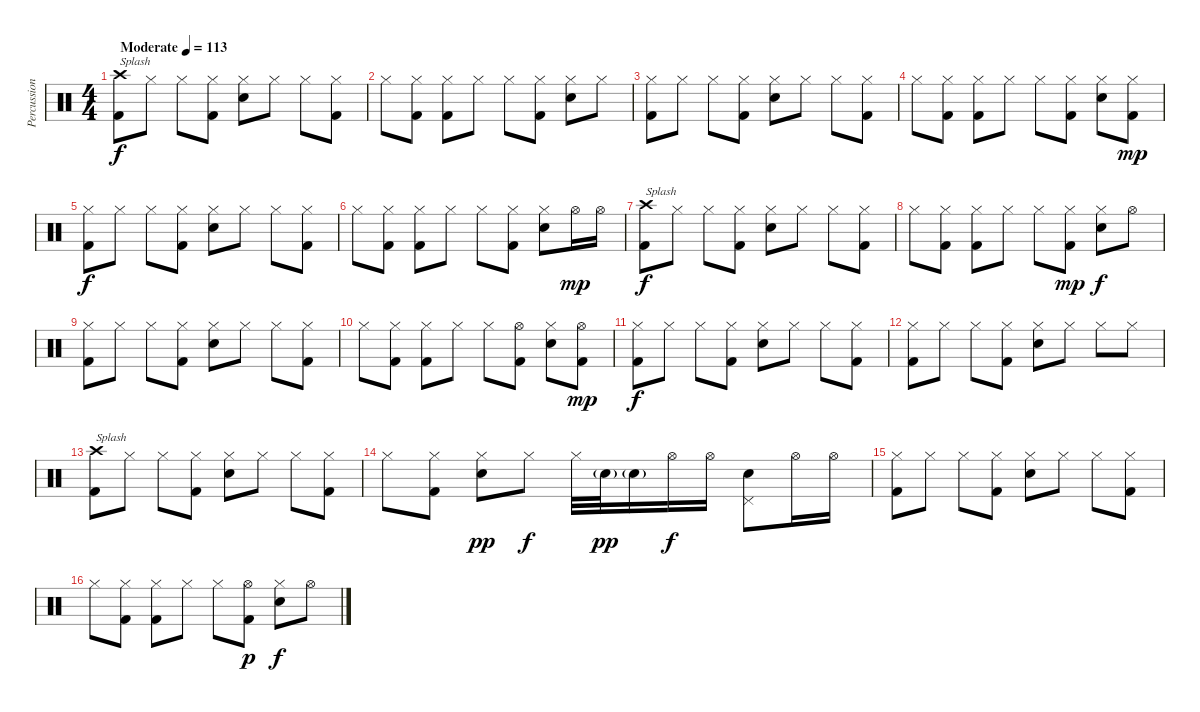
\track ("Percussion" "Percussion") {instrument percussion}
\staff {score}
\articulation defaults
\ts (4 4)
\tempo (113 "Moderate")
\clef neutral
\ks c
("Crash high (hit)" "Kick (hit) 2").8{txt "Splash" dy f} "Hi-Hat (closed)".8 "Hi-Hat (closed)".8 ("Hi-Hat (closed)" "Kick (hit) 2").8 ("Hi-Hat (closed)" "Snare (hit) 2").8 "Hi-Hat (closed)".8 "Hi-Hat (closed)".8 ("Hi-Hat (closed)" "Kick (hit) 2").8 |
"Hi-Hat (closed)".8 ("Hi-Hat (closed)" "Kick (hit) 2").8 ("Hi-Hat (closed)" "Kick (hit) 2").8 "Hi-Hat (closed)".8 "Hi-Hat (closed)".8 ("Hi-Hat (closed)" "Kick (hit) 2").8 ("Hi-Hat (closed)" "Snare (hit) 2").8 "Hi-Hat (closed)".8 |
("Hi-Hat (closed)" "Kick (hit) 2").8 "Hi-Hat (closed)".8 "Hi-Hat (closed)".8 ("Hi-Hat (closed)" "Kick (hit) 2").8 ("Hi-Hat (closed)" "Snare (hit) 2").8 "Hi-Hat (closed)".8 "Hi-Hat (closed)".8 ("Hi-Hat (closed)" "Kick (hit) 2").8 |
"Hi-Hat (closed)".8 ("Hi-Hat (closed)" "Kick (hit) 2").8 ("Hi-Hat (closed)" "Kick (hit) 2").8 "Hi-Hat (closed)".8 "Hi-Hat (closed)".8 ("Hi-Hat (closed)" "Kick (hit) 2").8 ("Hi-Hat (closed)" "Snare (hit) 2").8 ("Hi-Hat (closed)" "Kick (hit) 2").8{dy mp} |
("Hi-Hat (closed)" "Kick (hit) 2").8{dy f} "Hi-Hat (closed)".8 "Hi-Hat (closed)".8 ("Hi-Hat (closed)" "Kick (hit) 2").8 ("Hi-Hat (closed)" "Snare (hit) 2").8 "Hi-Hat (closed)".8 "Hi-Hat (closed)".8 ("Hi-Hat (closed)" "Kick (hit) 2").8 |
"Hi-Hat (closed)".8 ("Hi-Hat (closed)" "Kick (hit) 2").8 ("Hi-Hat (closed)" "Kick (hit) 2").8 "Hi-Hat (closed)".8 "Hi-Hat (closed)".8 ("Hi-Hat (closed)" "Kick (hit) 2").8 ("Hi-Hat (closed)" "Snare (hit) 2").8 "Hi-Hat (open)".16{dy mp} "Hi-Hat (open)".16 |
("Crash high (hit)" "Kick (hit) 2").8{txt "Splash" dy f} "Hi-Hat (closed)".8 "Hi-Hat (closed)".8 ("Hi-Hat (closed)" "Kick (hit) 2").8 ("Hi-Hat (closed)" "Snare (hit) 2").8 "Hi-Hat (closed)".8 "Hi-Hat (closed)".8 ("Hi-Hat (closed)" "Kick (hit) 2").8 |
"Hi-Hat (closed)".8 ("Hi-Hat (closed)" "Kick (hit) 2").8 ("Hi-Hat (closed)" "Kick (hit) 2").8 "Hi-Hat (closed)".8 "Hi-Hat (closed)".8 ("Hi-Hat (closed)" "Kick (hit) 2").8{dy mp} ("Hi-Hat (closed)" "Snare (hit) 2").8{dy f} "Hi-Hat (open)".8 |
("Hi-Hat (closed)" "Kick (hit) 2").8 "Hi-Hat (closed)".8 "Hi-Hat (closed)".8 ("Hi-Hat (closed)" "Kick (hit) 2").8 ("Hi-Hat (closed)" "Snare (hit) 2").8 "Hi-Hat (closed)".8 "Hi-Hat (closed)".8 ("Hi-Hat (closed)" "Kick (hit) 2").8 |
"Hi-Hat (closed)".8 ("Hi-Hat (closed)" "Kick (hit) 2").8 ("Hi-Hat (closed)" "Kick (hit) 2").8 "Hi-Hat (closed)".8 "Hi-Hat (closed)".8 ("Hi-Hat (open)" "Kick (hit) 2").8 ("Hi-Hat (closed)" "Snare (hit) 2").8 ("Hi-Hat (open)" "Kick (hit) 2").8{dy mp} |
("Hi-Hat (closed)" "Kick (hit) 2").8{dy f} "Hi-Hat (closed)".8 "Hi-Hat (closed)".8 ("Hi-Hat (closed)" "Kick (hit) 2").8 ("Hi-Hat (closed)" "Snare (hit) 2").8 "Hi-Hat (closed)".8 "Hi-Hat (closed)".8 ("Hi-Hat (closed)" "Kick (hit) 2").8 |
("Hi-Hat (closed)" "Kick (hit) 2").8 "Hi-Hat (closed)".8 "Hi-Hat (closed)".8 ("Hi-Hat (closed)" "Kick (hit) 2").8 ("Hi-Hat (closed)" "Snare (hit) 2").8 "Hi-Hat (closed)".8 "Hi-Hat (closed)".8 "Hi-Hat (closed)".8 |
("Crash high (hit)" "Kick (hit) 2").8{txt "Splash"} "Hi-Hat (closed)".8 "Hi-Hat (closed)".8 ("Hi-Hat (closed)" "Kick (hit) 2").8 ("Hi-Hat (closed)" "Snare (hit) 2").8 "Hi-Hat (closed)".8 "Hi-Hat (closed)".8 ("Hi-Hat (closed)" "Kick (hit) 2").8 |
"Hi-Hat (closed)".8 ("Hi-Hat (closed)" "Kick (hit) 2").8 ("Hi-Hat (closed)" "Snare (hit) 2").8{dy pp} "Hi-Hat (closed)".8{dy f} "Hi-Hat (closed)".32 "Snare (hit) 2"{g}.32{dy pp} "Snare (hit) 2"{g}.16 "Hi-Hat (open)".16{dy f} "Hi-Hat (open)".16 ("Pedal Hi-Hat (hit)" "Snare (hit) 2").8 "Hi-Hat (open)".16 "Hi-Hat (open)".16 |
("Hi-Hat (closed)" "Kick (hit) 2").8 "Hi-Hat (closed)".8 "Hi-Hat (closed)".8 ("Hi-Hat (closed)" "Kick (hit) 2").8 ("Hi-Hat (closed)" "Snare (hit) 2").8 "Hi-Hat (closed)".8 "Hi-Hat (closed)".8 ("Hi-Hat (closed)" "Kick (hit) 2").8 |
"Hi-Hat (closed)".8 ("Hi-Hat (closed)" "Kick (hit) 2").8 ("Hi-Hat (closed)" "Kick (hit) 2").8 "Hi-Hat (closed)".8 "Hi-Hat (closed)".8 ("Hi-Hat (open)" "Kick (hit) 2").8{dy p} ("Hi-Hat (closed)" "Snare (hit) 2").8{dy f} "Hi-Hat (open)".8
